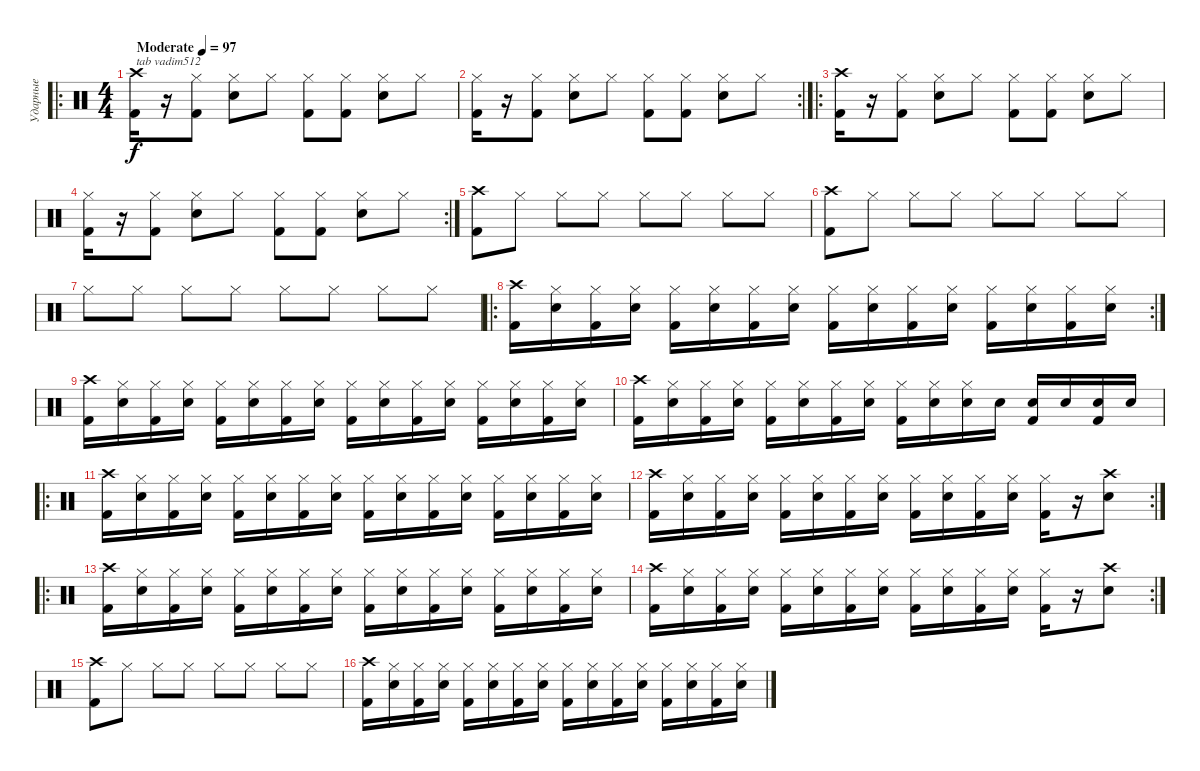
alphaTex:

\track ("Ударные" "Ударные") {instrument percussion}
\staff {score}
\articulation defaults
\ro
\ts (4 4)
\tempo (97 "Moderate")
\clef neutral
\ks c
("Kick (hit) 2" "Crash high (hit)").16{txt "tab vadim512" dy f} r.16 ("Kick (hit) 2" "Hi-Hat (closed)").8 ("Electric Snare (hit)" "Hi-Hat (closed)").8 "Hi-Hat (closed)".8 ("Kick (hit) 2" "Hi-Hat (closed)").8 ("Kick (hit) 2" "Hi-Hat (closed)").8 ("Electric Snare (hit)" "Hi-Hat (closed)").8 "Hi-Hat (closed)".8 |
\rc 2
("Kick (hit) 2" "Hi-Hat (closed)").16 r.16 ("Kick (hit) 2" "Hi-Hat (closed)").8 ("Electric Snare (hit)" "Hi-Hat (closed)").8 "Hi-Hat (closed)".8 ("Kick (hit) 2" "Hi-Hat (closed)").8 ("Kick (hit) 2" "Hi-Hat (closed)").8 ("Electric Snare (hit)" "Hi-Hat (closed)").8 "Hi-Hat (closed)".8 |
\ro
("Kick (hit) 2" "Crash high (hit)").16 r.16 ("Kick (hit) 2" "Hi-Hat (closed)").8 ("Electric Snare (hit)" "Hi-Hat (closed)").8 "Hi-Hat (closed)".8 ("Kick (hit) 2" "Hi-Hat (closed)").8 ("Kick (hit) 2" "Hi-Hat (closed)").8 ("Electric Snare (hit)" "Hi-Hat (closed)").8 "Hi-Hat (closed)".8 |
\rc 2
("Kick (hit) 2" "Hi-Hat (closed)").16 r.16 ("Kick (hit) 2" "Hi-Hat (closed)").8 ("Electric Snare (hit)" "Hi-Hat (closed)").8 "Hi-Hat (closed)".8 ("Kick (hit) 2" "Hi-Hat (closed)").8 ("Kick (hit) 2" "Hi-Hat (closed)").8 ("Electric Snare (hit)" "Hi-Hat (closed)").8 "Hi-Hat (closed)".8 |
("Kick (hit) 2" "Crash high (hit)").8 "Hi-Hat (closed)".8 "Hi-Hat (closed)".8 "Hi-Hat (closed)".8 "Hi-Hat (closed)".8 "Hi-Hat (closed)".8 "Hi-Hat (closed)".8 "Hi-Hat (closed)".8 |
("Kick (hit) 2" "Crash high (hit)").8 "Hi-Hat (closed)".8 "Hi-Hat (closed)".8 "Hi-Hat (closed)".8 "Hi-Hat (closed)".8 "Hi-Hat (closed)".8 "Hi-Hat (closed)".8 "Hi-Hat (closed)".8 |
"Hi-Hat (closed)".8 "Hi-Hat (closed)".8 "Hi-Hat (closed)".8 "Hi-Hat (closed)".8 "Hi-Hat (closed)".8 "Hi-Hat (closed)".8 "Hi-Hat (closed)".8 "Hi-Hat (closed)".8 |
\ro
\rc 2
("Kick (hit) 2" "Crash high (hit)").16 ("Electric Snare (hit)" "Hi-Hat (closed)").16 ("Kick (hit) 2" "Hi-Hat (closed)").16 ("Electric Snare (hit)" "Hi-Hat (closed)").16 ("Kick (hit) 2" "Hi-Hat (closed)").16 ("Electric Snare (hit)" "Hi-Hat (closed)").16 ("Kick (hit) 2" "Hi-Hat (closed)").16 ("Electric Snare (hit)" "Hi-Hat (closed)").16 ("Kick (hit) 2" "Hi-Hat (closed)").16 ("Electric Snare (hit)" "Hi-Hat (closed)").16 ("Kick (hit) 2" "Hi-Hat (closed)").16 ("Electric Snare (hit)" "Hi-Hat (closed)").16 ("Kick (hit) 2" "Hi-Hat (closed)").16 ("Electric Snare (hit)" "Hi-Hat (closed)").16 ("Kick (hit) 2" "Hi-Hat (closed)").16 ("Electric Snare (hit)" "Hi-Hat (closed)").16 |
("Kick (hit) 2" "Crash high (hit)").16 ("Electric Snare (hit)" "Hi-Hat (closed)").16 ("Kick (hit) 2" "Hi-Hat (closed)").16 ("Electric Snare (hit)" "Hi-Hat (closed)").16 ("Kick (hit) 2" "Hi-Hat (closed)").16 ("Electric Snare (hit)" "Hi-Hat (closed)").16 ("Kick (hit) 2" "Hi-Hat (closed)").16 ("Electric Snare (hit)" "Hi-Hat (closed)").16 ("Kick (hit) 2" "Hi-Hat (closed)").16 ("Electric Snare (hit)" "Hi-Hat (closed)").16 ("Kick (hit) 2" "Hi-Hat (closed)").16 ("Electric Snare (hit)" "Hi-Hat (closed)").16 ("Kick (hit) 2" "Hi-Hat (closed)").16 ("Electric Snare (hit)" "Hi-Hat (closed)").16 ("Kick (hit) 2" "Hi-Hat (closed)").16 ("Electric Snare (hit)" "Hi-Hat (closed)").16 |
("Kick (hit) 2" "Crash high (hit)").16 ("Electric Snare (hit)" "Hi-Hat (closed)").16 ("Kick (hit) 2" "Hi-Hat (closed)").16 ("Electric Snare (hit)" "Hi-Hat (closed)").16 ("Kick (hit) 2" "Hi-Hat (closed)").16 ("Electric Snare (hit)" "Hi-Hat (closed)").16 ("Kick (hit) 2" "Hi-Hat (closed)").16 ("Electric Snare (hit)" "Hi-Hat (closed)").16 ("Kick (hit) 2" "Hi-Hat (closed)").16 ("Electric Snare (hit)" "Hi-Hat (closed)").16 ("Electric Snare (hit)" "Hi-Hat (closed)").16 "Electric Snare (hit)".16 ("Electric Snare (hit)" "Kick (hit) 2").16 "Electric Snare (hit)".16 ("Electric Snare (hit)" "Kick (hit) 2").16 "Electric Snare (hit)".16 |
\ro
("Kick (hit) 2" "Crash high (hit)").16 ("Electric Snare (hit)" "Hi-Hat (closed)").16 ("Kick (hit) 2" "Hi-Hat (closed)").16 ("Electric Snare (hit)" "Hi-Hat (closed)").16 ("Kick (hit) 2" "Hi-Hat (closed)").16 ("Electric Snare (hit)" "Hi-Hat (closed)").16 ("Kick (hit) 2" "Hi-Hat (closed)").16 ("Electric Snare (hit)" "Hi-Hat (closed)").16 ("Kick (hit) 2" "Hi-Hat (closed)").16 ("Electric Snare (hit)" "Hi-Hat (closed)").16 ("Kick (hit) 2" "Hi-Hat (closed)").16 ("Electric Snare (hit)" "Hi-Hat (closed)").16 ("Kick (hit) 2" "Hi-Hat (closed)").16 ("Electric Snare (hit)" "Hi-Hat (closed)").16 ("Kick (hit) 2" "Hi-Hat (closed)").16 ("Electric Snare (hit)" "Hi-Hat (closed)").16 |
\rc 2
("Kick (hit) 2" "Crash high (hit)").16 ("Electric Snare (hit)" "Hi-Hat (closed)").16 ("Kick (hit) 2" "Hi-Hat (closed)").16 ("Electric Snare (hit)" "Hi-Hat (closed)").16 ("Kick (hit) 2" "Hi-Hat (closed)").16 ("Electric Snare (hit)" "Hi-Hat (closed)").16 ("Kick (hit) 2" "Hi-Hat (closed)").16 ("Electric Snare (hit)" "Hi-Hat (closed)").16 ("Kick (hit) 2" "Hi-Hat (closed)").16 ("Electric Snare (hit)" "Hi-Hat (closed)").16 ("Kick (hit) 2" "Hi-Hat (closed)").16 ("Electric Snare (hit)" "Hi-Hat (closed)").16 ("Kick (hit) 2" "Hi-Hat (closed)").16 r.16 ("Electric Snare (hit)" "Crash high (hit)").8 |
\ro
("Kick (hit) 2" "Crash high (hit)").16 ("Electric Snare (hit)" "Hi-Hat (closed)").16 ("Kick (hit) 2" "Hi-Hat (closed)").16 ("Electric Snare (hit)" "Hi-Hat (closed)").16 ("Kick (hit) 2" "Hi-Hat (closed)").16 ("Electric Snare (hit)" "Hi-Hat (closed)").16 ("Kick (hit) 2" "Hi-Hat (closed)").16 ("Electric Snare (hit)" "Hi-Hat (closed)").16 ("Kick (hit) 2" "Hi-Hat (closed)").16 ("Electric Snare (hit)" "Hi-Hat (closed)").16 ("Kick (hit) 2" "Hi-Hat (closed)").16 ("Electric Snare (hit)" "Hi-Hat (closed)").16 ("Kick (hit) 2" "Hi-Hat (closed)").16 ("Electric Snare (hit)" "Hi-Hat (closed)").16 ("Kick (hit) 2" "Hi-Hat (closed)").16 ("Electric Snare (hit)" "Hi-Hat (closed)").16 |
\rc 2
("Kick (hit) 2" "Crash high (hit)").16 ("Electric Snare (hit)" "Hi-Hat (closed)").16 ("Kick (hit) 2" "Hi-Hat (closed)").16 ("Electric Snare (hit)" "Hi-Hat (closed)").16 ("Kick (hit) 2" "Hi-Hat (closed)").16 ("Electric Snare (hit)" "Hi-Hat (closed)").16 ("Kick (hit) 2" "Hi-Hat (closed)").16 ("Electric Snare (hit)" "Hi-Hat (closed)").16 ("Kick (hit) 2" "Hi-Hat (closed)").16 ("Electric Snare (hit)" "Hi-Hat (closed)").16 ("Kick (hit) 2" "Hi-Hat (closed)").16 ("Electric Snare (hit)" "Hi-Hat (closed)").16 ("Kick (hit) 2" "Hi-Hat (closed)").16 r.16 ("Electric Snare (hit)" "Crash high (hit)").8 |
("Kick (hit) 2" "Crash high (hit)").8 "Hi-Hat (closed)".8 "Hi-Hat (closed)".8 "Hi-Hat (closed)".8 "Hi-Hat (closed)".8 "Hi-Hat (closed)".8 "Hi-Hat (closed)".8 "Hi-Hat (closed)".8 |
("Kick (hit) 2" "Crash high (hit)").16 ("Electric Snare (hit)" "Hi-Hat (closed)").16 ("Kick (hit) 2" "Hi-Hat (closed)").16 ("Electric Snare (hit)" "Hi-Hat (closed)").16 ("Kick (hit) 2" "Hi-Hat (closed)").16 ("Electric Snare (hit)" "Hi-Hat (closed)").16 ("Kick (hit) 2" "Hi-Hat (closed)").16 ("Electric Snare (hit)" "Hi-Hat (closed)").16 ("Kick (hit) 2" "Hi-Hat (closed)").16 ("Electric Snare (hit)" "Hi-Hat (closed)").16 ("Kick (hit) 2" "Hi-Hat (closed)").16 ("Electric Snare (hit)" "Hi-Hat (closed)").16 ("Kick (hit) 2" "Hi-Hat (closed)").16 ("Electric Snare (hit)" "Hi-Hat (closed)").16 ("Kick (hit) 2" "Hi-Hat (closed)").16 ("Electric Snare (hit)" "Hi-Hat (closed)").16
